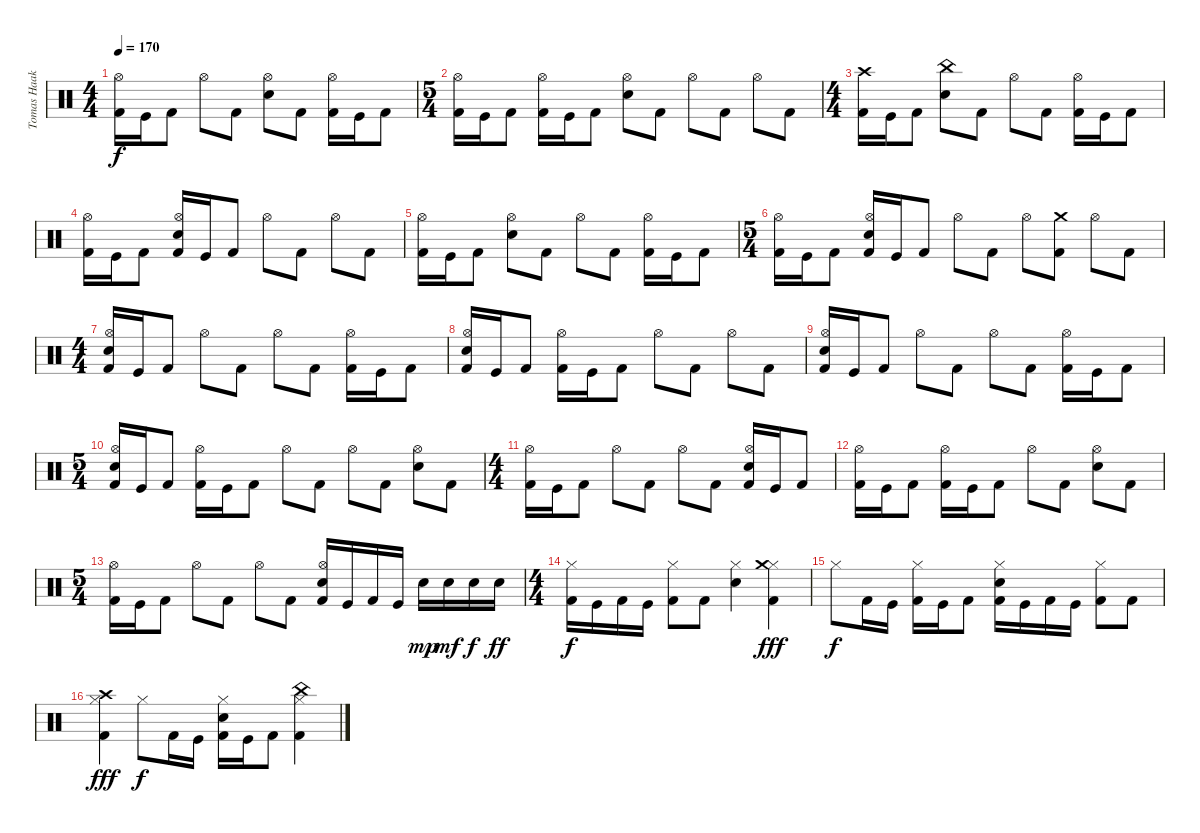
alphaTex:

\track ("Tomas Haake" "Tomas Haak") {instrument percussion}
\staff {score}
\articulation defaults
\ts (4 4)
\tempo 170
\clef neutral
\ks c
("Kick (hit) 2" "Hi-Hat (open)").16{dy f} "Kick (hit)".16 "Kick (hit) 2".8 "Hi-Hat (open)".8 "Kick (hit) 2".8 ("Snare (hit) 2" "Hi-Hat (open)").8 "Kick (hit) 2".8 ("Kick (hit) 2" "Hi-Hat (open)").16 "Kick (hit)".16 "Kick (hit) 2".8 |
\ts (5 4)
("Kick (hit) 2" "Hi-Hat (open)").16 "Kick (hit)".16 "Kick (hit) 2".8 ("Kick (hit) 2" "Hi-Hat (open)").16 "Kick (hit)".16 "Kick (hit) 2".8 ("Snare (hit) 2" "Hi-Hat (open)").8 "Kick (hit) 2".8 "Hi-Hat (open)".8 "Kick (hit) 2".8 "Hi-Hat (open)".8 "Kick (hit) 2".8 |
\ts (4 4)
("Kick (hit) 2" "Crash high (hit)").16 "Kick (hit)".16 "Kick (hit) 2".8 ("Snare (hit) 2" "China (hit)").8 "Kick (hit) 2".8 "Hi-Hat (open)".8 "Kick (hit) 2".8 ("Kick (hit) 2" "Hi-Hat (open)").16 "Kick (hit)".16 "Kick (hit) 2".8 |
("Kick (hit) 2" "Hi-Hat (open)").16 "Kick (hit)".16 "Kick (hit) 2".8 ("Kick (hit) 2" "Snare (hit) 2" "Hi-Hat (open)").16 "Kick (hit)".16 "Kick (hit) 2".8 "Hi-Hat (open)".8 "Kick (hit) 2".8 "Hi-Hat (open)".8 "Kick (hit) 2".8 |
("Kick (hit) 2" "Hi-Hat (open)").16 "Kick (hit)".16 "Kick (hit) 2".8 ("Snare (hit) 2" "Hi-Hat (open)").8 "Kick (hit) 2".8 "Hi-Hat (open)".8 "Kick (hit) 2".8 ("Kick (hit) 2" "Hi-Hat (open)").16 "Kick (hit)".16 "Kick (hit) 2".8 |
\ts (5 4)
("Kick (hit) 2" "Hi-Hat (open)").16 "Kick (hit)".16 "Kick (hit) 2".8 ("Kick (hit) 2" "Snare (hit) 2" "Hi-Hat (open)").16 "Kick (hit)".16 "Kick (hit) 2".8 "Hi-Hat (open)".8 "Kick (hit) 2".8 "Hi-Hat (open)".8 ("Kick (hit) 2" "Crash medium (hit)").8 "Hi-Hat (open)".8 "Kick (hit) 2".8 |
\ts (4 4)
("Kick (hit) 2" "Snare (hit) 2" "Hi-Hat (open)").16 "Kick (hit)".16 "Kick (hit) 2".8 "Hi-Hat (open)".8 "Kick (hit) 2".8 "Hi-Hat (open)".8 "Kick (hit) 2".8 ("Kick (hit) 2" "Hi-Hat (open)").16 "Kick (hit)".16 "Kick (hit) 2".8 |
("Kick (hit) 2" "Snare (hit) 2" "Hi-Hat (open)").16 "Kick (hit)".16 "Kick (hit) 2".8 ("Kick (hit) 2" "Hi-Hat (open)").16 "Kick (hit)".16 "Kick (hit) 2".8 "Hi-Hat (open)".8 "Kick (hit) 2".8 "Hi-Hat (open)".8 "Kick (hit) 2".8 |
("Kick (hit) 2" "Snare (hit) 2" "Hi-Hat (open)").16 "Kick (hit)".16 "Kick (hit) 2".8 "Hi-Hat (open)".8 "Kick (hit) 2".8 "Hi-Hat (open)".8 "Kick (hit) 2".8 ("Kick (hit) 2" "Hi-Hat (open)").16 "Kick (hit)".16 "Kick (hit) 2".8 |
\ts (5 4)
("Kick (hit) 2" "Snare (hit) 2" "Hi-Hat (open)").16 "Kick (hit)".16 "Kick (hit) 2".8 ("Kick (hit) 2" "Hi-Hat (open)").16 "Kick (hit)".16 "Kick (hit) 2".8 "Hi-Hat (open)".8 "Kick (hit) 2".8 "Hi-Hat (open)".8 "Kick (hit) 2".8 ("Snare (hit) 2" "Hi-Hat (open)").8 "Kick (hit) 2".8 |
\ts (4 4)
("Kick (hit) 2" "Hi-Hat (open)").16 "Kick (hit)".16 "Kick (hit) 2".8 "Hi-Hat (open)".8 "Kick (hit) 2".8 "Hi-Hat (open)".8 "Kick (hit) 2".8 ("Kick (hit) 2" "Snare (hit) 2" "Hi-Hat (open)").16 "Kick (hit)".16 "Kick (hit) 2".8 |
("Kick (hit) 2" "Hi-Hat (open)").16 "Kick (hit)".16 "Kick (hit) 2".8 ("Kick (hit) 2" "Hi-Hat (open)").16 "Kick (hit)".16 "Kick (hit) 2".8 "Hi-Hat (open)".8 "Kick (hit) 2".8 ("Snare (hit) 2" "Hi-Hat (open)").8 "Kick (hit) 2".8 |
\ts (5 4)
("Kick (hit) 2" "Hi-Hat (open)").16 "Kick (hit)".16 "Kick (hit) 2".8 "Hi-Hat (open)".8 "Kick (hit) 2".8 "Hi-Hat (open)".8 "Kick (hit) 2".8 ("Kick (hit) 2" "Snare (hit) 2" "Hi-Hat (open)").16 "Kick (hit)".16 "Kick (hit) 2".16 "Kick (hit)".16 "Snare (hit) 2".16{dy mp} "Snare (hit) 2".16{dy mf} "Snare (hit) 2".16{dy f} "Snare (hit) 2".16{dy ff} |
\ts (4 4)
("Kick (hit) 2" "Hi-Hat (closed)").16{dy f} "Kick (hit)".16 "Kick (hit) 2".16 "Kick (hit)".16 ("Kick (hit) 2" "Hi-Hat (closed)").8 "Kick (hit) 2".8 ("Snare (hit) 2" "Hi-Hat (closed)").4 ("Kick (hit) 2" "Hi-Hat (closed)" "Crash medium (hit)").4{dy fff} |
"Hi-Hat (closed)".8{dy f} "Kick (hit) 2".16 "Kick (hit)".16 ("Kick (hit) 2" "Hi-Hat (closed)").16 "Kick (hit)".16 "Kick (hit) 2".8 ("Kick (hit) 2" "Snare (hit) 2" "Hi-Hat (closed)").16 "Kick (hit)".16 "Kick (hit) 2".16 "Kick (hit)".16 ("Kick (hit) 2" "Hi-Hat (closed)").8 "Kick (hit) 2".8 |
("Kick (hit) 2" "Hi-Hat (closed)" "Crash high (hit)").4{dy fff} "Hi-Hat (closed)".8{dy f} "Kick (hit) 2".16 "Kick (hit)".16 ("Kick (hit) 2" "Snare (hit) 2" "Hi-Hat (closed)").16 "Kick (hit)".16 "Kick (hit) 2".8 ("Kick (hit) 2" "Hi-Hat (closed)" "China (hit)").4
